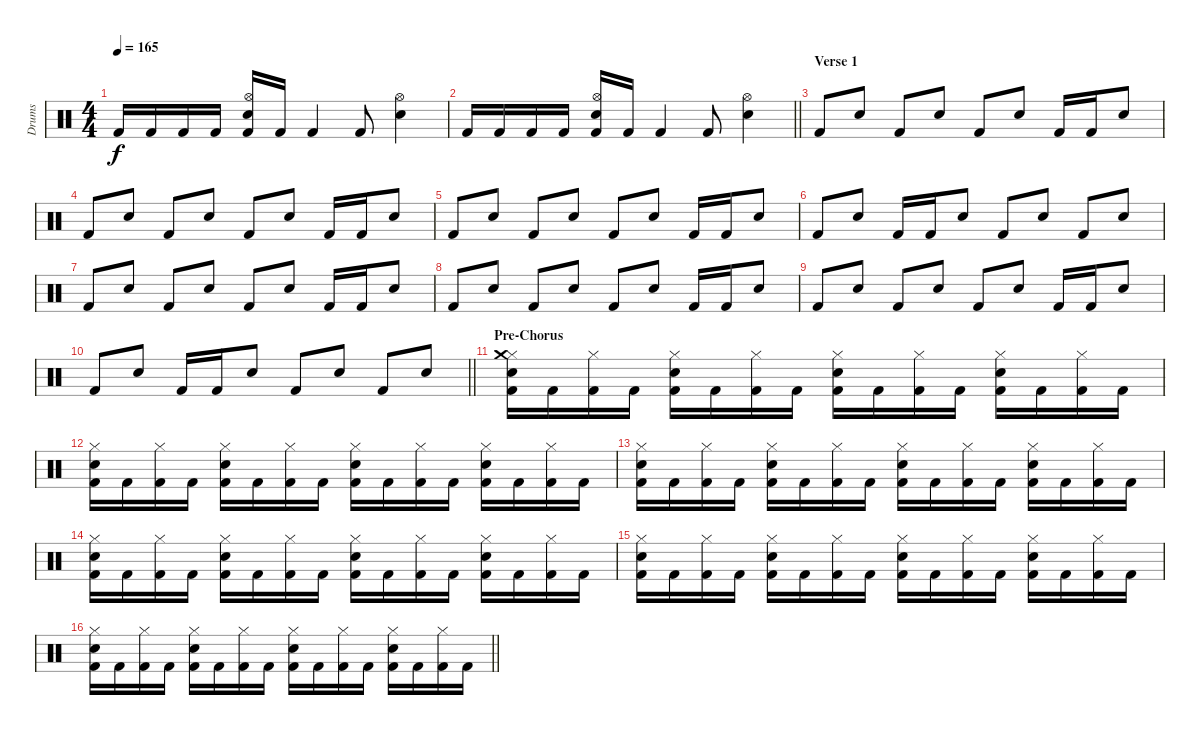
\track ("Drums" "Drums") {instrument percussion}
\staff {score}
\articulation defaults
\ts (4 4)
\tempo 165
\clef neutral
\ks c "Kick (hit) 2".16{dy f} "Kick (hit) 2".16 "Kick (hit) 2".16 "Kick (hit) 2".16
("Hi-Hat (open)" "Snare (hit) 2" "Kick (hit) 2").16 "Kick (hit) 2".16 "Kick (hit) 2".4 "Kick (hit) 2".8 ("Hi-Hat (open)" "Snare (hit) 2").4 |
\barLineRight lightlight "Kick (hit) 2".16 "Kick (hit) 2".16 "Kick (hit) 2".16 "Kick (hit) 2".16
("Hi-Hat (open)" "Snare (hit) 2" "Kick (hit) 2").16 "Kick (hit) 2".16 "Kick (hit) 2".4 "Kick (hit) 2".8 ("Hi-Hat (open)" "Snare (hit) 2").4 |
\section ("" "Verse 1")
"Kick (hit) 2".8 "Snare (hit) 2".8 "Kick (hit) 2".8 "Snare (hit) 2".8 "Kick (hit) 2".8 "Snare (hit) 2".8 "Kick (hit) 2".16 "Kick (hit) 2".16 "Snare (hit) 2".8 |
"Kick (hit) 2".8 "Snare (hit) 2".8 "Kick (hit) 2".8 "Snare (hit) 2".8 "Kick (hit) 2".8 "Snare (hit) 2".8 "Kick (hit) 2".16 "Kick (hit) 2".16 "Snare (hit) 2".8 |
"Kick (hit) 2".8 "Snare (hit) 2".8 "Kick (hit) 2".8 "Snare (hit) 2".8 "Kick (hit) 2".8 "Snare (hit) 2".8 "Kick (hit) 2".16 "Kick (hit) 2".16 "Snare (hit) 2".8 |
"Kick (hit) 2".8 "Snare (hit) 2".8 "Kick (hit) 2".16 "Kick (hit) 2".16 "Snare (hit) 2".8 "Kick (hit) 2".8 "Snare (hit) 2".8 "Kick (hit) 2".8 "Snare (hit) 2".8 |
"Kick (hit) 2".8 "Snare (hit) 2".8 "Kick (hit) 2".8 "Snare (hit) 2".8 "Kick (hit) 2".8 "Snare (hit) 2".8 "Kick (hit) 2".16 "Kick (hit) 2".16 "Snare (hit) 2".8 |
"Kick (hit) 2".8 "Snare (hit) 2".8 "Kick (hit) 2".8 "Snare (hit) 2".8 "Kick (hit) 2".8 "Snare (hit) 2".8 "Kick (hit) 2".16 "Kick (hit) 2".16 "Snare (hit) 2".8 |
"Kick (hit) 2".8 "Snare (hit) 2".8 "Kick (hit) 2".8 "Snare (hit) 2".8 "Kick (hit) 2".8 "Snare (hit) 2".8 "Kick (hit) 2".16 "Kick (hit) 2".16 "Snare (hit) 2".8 |
\barLineRight lightlight "Kick (hit) 2".8 "Snare (hit) 2".8 "Kick (hit) 2".16 "Kick (hit) 2".16 "Snare (hit) 2".8 "Kick (hit) 2".8 "Snare (hit) 2".8 "Kick (hit) 2".8 "Snare (hit) 2".8
|
\section ("" "Pre-Chorus")
("Hi-Hat (closed)" "Snare (hit) 2" "Crash medium (hit)" "Kick (hit) 2").16 "Kick (hit) 2".16 ("Hi-Hat (closed)" "Kick (hit) 2").16 "Kick (hit) 2".16 ("Hi-Hat (closed)" "Snare (hit) 2" "Kick (hit) 2").16 "Kick (hit) 2".16 ("Hi-Hat (closed)" "Kick (hit) 2").16 "Kick (hit) 2".16 ("Hi-Hat (closed)" "Snare (hit) 2" "Kick (hit) 2").16 "Kick (hit) 2".16 ("Hi-Hat (closed)" "Kick (hit) 2").16 "Kick (hit) 2".16 ("Hi-Hat (closed)" "Snare (hit) 2" "Kick (hit) 2").16 "Kick (hit) 2".16 ("Hi-Hat (closed)" "Kick (hit) 2").16 "Kick (hit) 2".16 |
("Hi-Hat (closed)" "Snare (hit) 2" "Kick (hit) 2").16 "Kick (hit) 2".16 ("Hi-Hat (closed)" "Kick (hit) 2").16 "Kick (hit) 2".16 ("Hi-Hat (closed)" "Snare (hit) 2" "Kick (hit) 2").16 "Kick (hit) 2".16 ("Hi-Hat (closed)" "Kick (hit) 2").16 "Kick (hit) 2".16 ("Hi-Hat (closed)" "Snare (hit) 2" "Kick (hit) 2").16 "Kick (hit) 2".16 ("Hi-Hat (closed)" "Kick (hit) 2").16 "Kick (hit) 2".16 ("Hi-Hat (closed)" "Snare (hit) 2" "Kick (hit) 2").16 "Kick (hit) 2".16 ("Hi-Hat (closed)" "Kick (hit) 2").16 "Kick (hit) 2".16 |
("Hi-Hat (closed)" "Snare (hit) 2" "Kick (hit) 2").16 "Kick (hit) 2".16 ("Hi-Hat (closed)" "Kick (hit) 2").16 "Kick (hit) 2".16 ("Hi-Hat (closed)" "Snare (hit) 2" "Kick (hit) 2").16 "Kick (hit) 2".16 ("Hi-Hat (closed)" "Kick (hit) 2").16 "Kick (hit) 2".16 ("Hi-Hat (closed)" "Snare (hit) 2" "Kick (hit) 2").16 "Kick (hit) 2".16 ("Hi-Hat (closed)" "Kick (hit) 2").16 "Kick (hit) 2".16 ("Hi-Hat (closed)" "Snare (hit) 2" "Kick (hit) 2").16 "Kick (hit) 2".16 ("Hi-Hat (closed)" "Kick (hit) 2").16 "Kick (hit) 2".16 |
("Hi-Hat (closed)" "Snare (hit) 2" "Kick (hit) 2").16 "Kick (hit) 2".16 ("Hi-Hat (closed)" "Kick (hit) 2").16 "Kick (hit) 2".16 ("Hi-Hat (closed)" "Snare (hit) 2" "Kick (hit) 2").16 "Kick (hit) 2".16 ("Hi-Hat (closed)" "Kick (hit) 2").16 "Kick (hit) 2".16 ("Hi-Hat (closed)" "Snare (hit) 2" "Kick (hit) 2").16 "Kick (hit) 2".16 ("Hi-Hat (closed)" "Kick (hit) 2").16 "Kick (hit) 2".16 ("Hi-Hat (closed)" "Snare (hit) 2" "Kick (hit) 2").16 "Kick (hit) 2".16 ("Hi-Hat (closed)" "Kick (hit) 2").16 "Kick (hit) 2".16 |
("Hi-Hat (closed)" "Snare (hit) 2" "Kick (hit) 2").16 "Kick (hit) 2".16 ("Hi-Hat (closed)" "Kick (hit) 2").16 "Kick (hit) 2".16 ("Hi-Hat (closed)" "Snare (hit) 2" "Kick (hit) 2").16 "Kick (hit) 2".16 ("Hi-Hat (closed)" "Kick (hit) 2").16 "Kick (hit) 2".16 ("Hi-Hat (closed)" "Snare (hit) 2" "Kick (hit) 2").16 "Kick (hit) 2".16 ("Hi-Hat (closed)" "Kick (hit) 2").16 "Kick (hit) 2".16 ("Hi-Hat (closed)" "Snare (hit) 2" "Kick (hit) 2").16 "Kick (hit) 2".16 ("Hi-Hat (closed)" "Kick (hit) 2").16 "Kick (hit) 2".16 |
\barLineRight lightlight
("Hi-Hat (closed)" "Snare (hit) 2" "Kick (hit) 2").16 "Kick (hit) 2".16 ("Hi-Hat (closed)" "Kick (hit) 2").16 "Kick (hit) 2".16 ("Hi-Hat (closed)" "Snare (hit) 2" "Kick (hit) 2").16 "Kick (hit) 2".16 ("Hi-Hat (closed)" "Kick (hit) 2").16 "Kick (hit) 2".16 ("Hi-Hat (closed)" "Snare (hit) 2" "Kick (hit) 2").16 "Kick (hit) 2".16 ("Hi-Hat (closed)" "Kick (hit) 2").16 "Kick (hit) 2".16 ("Hi-Hat (closed)" "Snare (hit) 2" "Kick (hit) 2").16 "Kick (hit) 2".16 ("Hi-Hat (closed)" "Kick (hit) 2").16 "Kick (hit) 2".16
